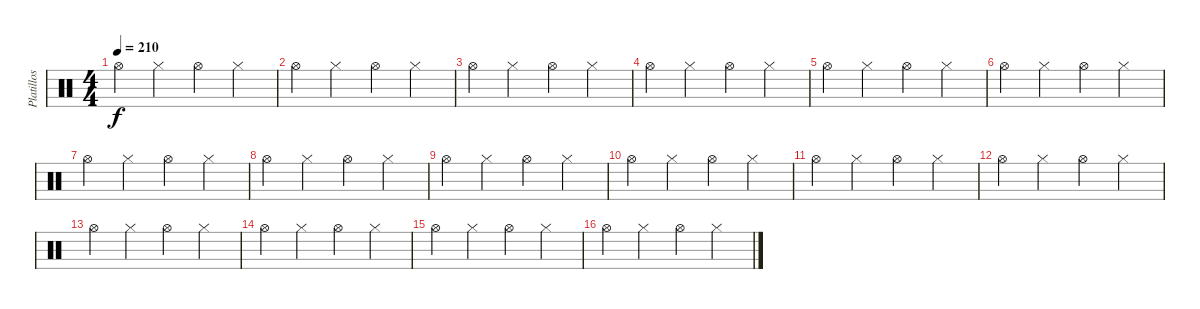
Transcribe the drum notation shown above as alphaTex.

\track ("Platillos (Leo)" "Platillos ") {instrument percussion}
\staff {score}
\articulation defaults
\ts (4 4)
\tempo 210
\clef neutral
\ks c "Hi-Hat (open)".4{dy f} "Hi-Hat (closed)".4 "Hi-Hat (open)".4 "Hi-Hat (closed)".4
|
"Hi-Hat (open)".4 "Hi-Hat (closed)".4 "Hi-Hat (open)".4 "Hi-Hat (closed)".4 |
"Hi-Hat (open)".4 "Hi-Hat (closed)".4 "Hi-Hat (open)".4 "Hi-Hat (closed)".4 |
"Hi-Hat (open)".4 "Hi-Hat (closed)".4 "Hi-Hat (open)".4 "Hi-Hat (closed)".4 |
"Hi-Hat (open)".4 "Hi-Hat (closed)".4 "Hi-Hat (open)".4 "Hi-Hat (closed)".4 |
"Hi-Hat (open)".4 "Hi-Hat (closed)".4 "Hi-Hat (open)".4 "Hi-Hat (closed)".4 |
"Hi-Hat (open)".4 "Hi-Hat (closed)".4 "Hi-Hat (open)".4 "Hi-Hat (closed)".4 |
"Hi-Hat (open)".4 "Hi-Hat (closed)".4 "Hi-Hat (open)".4 "Hi-Hat (closed)".4 |
"Hi-Hat (open)".4 "Hi-Hat (closed)".4 "Hi-Hat (open)".4 "Hi-Hat (closed)".4 |
"Hi-Hat (open)".4 "Hi-Hat (closed)".4 "Hi-Hat (open)".4 "Hi-Hat (closed)".4 |
"Hi-Hat (open)".4 "Hi-Hat (closed)".4 "Hi-Hat (open)".4 "Hi-Hat (closed)".4 |
"Hi-Hat (open)".4 "Hi-Hat (closed)".4 "Hi-Hat (open)".4 "Hi-Hat (closed)".4 |
"Hi-Hat (open)".4 "Hi-Hat (closed)".4 "Hi-Hat (open)".4 "Hi-Hat (closed)".4 |
"Hi-Hat (open)".4 "Hi-Hat (closed)".4 "Hi-Hat (open)".4 "Hi-Hat (closed)".4 |
"Hi-Hat (open)".4 "Hi-Hat (closed)".4 "Hi-Hat (open)".4 "Hi-Hat (closed)".4 |
"Hi-Hat (open)".4 "Hi-Hat (closed)".4 "Hi-Hat (open)".4 "Hi-Hat (closed)".4
